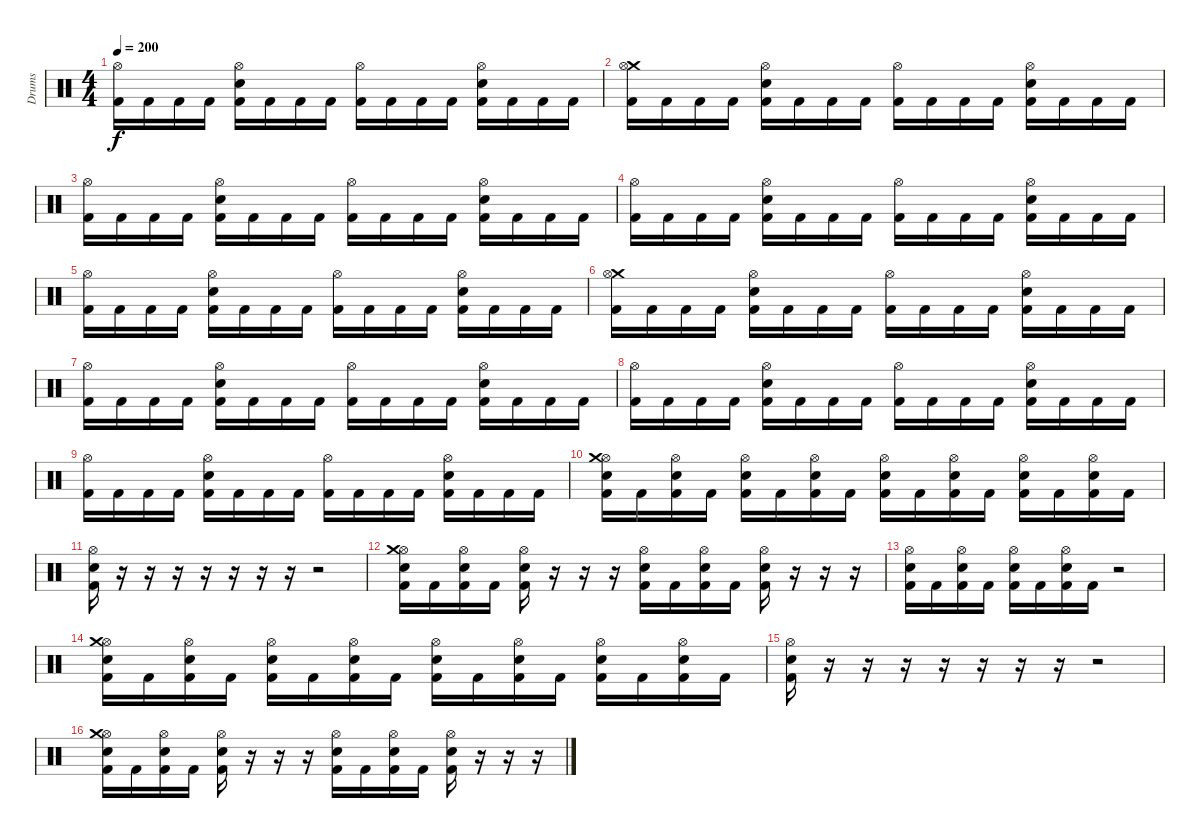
\track ("Drums" "Drums") {instrument percussion}
\staff {score}
\articulation defaults
\ts (4 4)
\tempo 200
\clef neutral
\ks c
("Hi-Hat (open)" "Kick (hit) 2").16{dy f} "Kick (hit) 2".16 "Kick (hit) 2".16 "Kick (hit) 2".16 ("Hi-Hat (open)" "Electric Snare (hit)" "Kick (hit) 2").16 "Kick (hit) 2".16 "Kick (hit) 2".16 "Kick (hit) 2".16 ("Hi-Hat (open)" "Kick (hit) 2").16 "Kick (hit) 2".16 "Kick (hit) 2".16 "Kick (hit) 2".16 ("Hi-Hat (open)" "Electric Snare (hit)" "Kick (hit) 2").16 "Kick (hit) 2".16 "Kick (hit) 2".16 "Kick (hit) 2".16 |
("Crash medium (hit)" "Hi-Hat (open)" "Kick (hit) 2").16 "Kick (hit) 2".16 "Kick (hit) 2".16 "Kick (hit) 2".16 ("Hi-Hat (open)" "Electric Snare (hit)" "Kick (hit) 2").16 "Kick (hit) 2".16 "Kick (hit) 2".16 "Kick (hit) 2".16 ("Hi-Hat (open)" "Kick (hit) 2").16 "Kick (hit) 2".16 "Kick (hit) 2".16 "Kick (hit) 2".16 ("Hi-Hat (open)" "Electric Snare (hit)" "Kick (hit) 2").16 "Kick (hit) 2".16 "Kick (hit) 2".16 "Kick (hit) 2".16 |
("Hi-Hat (open)" "Kick (hit) 2").16 "Kick (hit) 2".16 "Kick (hit) 2".16 "Kick (hit) 2".16 ("Hi-Hat (open)" "Electric Snare (hit)" "Kick (hit) 2").16 "Kick (hit) 2".16 "Kick (hit) 2".16 "Kick (hit) 2".16 ("Hi-Hat (open)" "Kick (hit) 2").16 "Kick (hit) 2".16 "Kick (hit) 2".16 "Kick (hit) 2".16 ("Hi-Hat (open)" "Electric Snare (hit)" "Kick (hit) 2").16 "Kick (hit) 2".16 "Kick (hit) 2".16 "Kick (hit) 2".16 |
("Hi-Hat (open)" "Kick (hit) 2").16 "Kick (hit) 2".16 "Kick (hit) 2".16 "Kick (hit) 2".16 ("Hi-Hat (open)" "Electric Snare (hit)" "Kick (hit) 2").16 "Kick (hit) 2".16 "Kick (hit) 2".16 "Kick (hit) 2".16 ("Hi-Hat (open)" "Kick (hit) 2").16 "Kick (hit) 2".16 "Kick (hit) 2".16 "Kick (hit) 2".16 ("Hi-Hat (open)" "Electric Snare (hit)" "Kick (hit) 2").16 "Kick (hit) 2".16 "Kick (hit) 2".16 "Kick (hit) 2".16 |
("Hi-Hat (open)" "Kick (hit) 2").16 "Kick (hit) 2".16 "Kick (hit) 2".16 "Kick (hit) 2".16 ("Hi-Hat (open)" "Electric Snare (hit)" "Kick (hit) 2").16 "Kick (hit) 2".16 "Kick (hit) 2".16 "Kick (hit) 2".16 ("Hi-Hat (open)" "Kick (hit) 2").16 "Kick (hit) 2".16 "Kick (hit) 2".16 "Kick (hit) 2".16 ("Hi-Hat (open)" "Electric Snare (hit)" "Kick (hit) 2").16 "Kick (hit) 2".16 "Kick (hit) 2".16 "Kick (hit) 2".16 |
("Crash medium (hit)" "Hi-Hat (open)" "Kick (hit) 2").16 "Kick (hit) 2".16 "Kick (hit) 2".16 "Kick (hit) 2".16 ("Hi-Hat (open)" "Electric Snare (hit)" "Kick (hit) 2").16 "Kick (hit) 2".16 "Kick (hit) 2".16 "Kick (hit) 2".16 ("Hi-Hat (open)" "Kick (hit) 2").16 "Kick (hit) 2".16 "Kick (hit) 2".16 "Kick (hit) 2".16 ("Hi-Hat (open)" "Electric Snare (hit)" "Kick (hit) 2").16 "Kick (hit) 2".16 "Kick (hit) 2".16 "Kick (hit) 2".16 |
("Hi-Hat (open)" "Kick (hit) 2").16 "Kick (hit) 2".16 "Kick (hit) 2".16 "Kick (hit) 2".16 ("Hi-Hat (open)" "Electric Snare (hit)" "Kick (hit) 2").16 "Kick (hit) 2".16 "Kick (hit) 2".16 "Kick (hit) 2".16 ("Hi-Hat (open)" "Kick (hit) 2").16 "Kick (hit) 2".16 "Kick (hit) 2".16 "Kick (hit) 2".16 ("Hi-Hat (open)" "Electric Snare (hit)" "Kick (hit) 2").16 "Kick (hit) 2".16 "Kick (hit) 2".16 "Kick (hit) 2".16 |
("Hi-Hat (open)" "Kick (hit) 2").16 "Kick (hit) 2".16 "Kick (hit) 2".16 "Kick (hit) 2".16 ("Hi-Hat (open)" "Electric Snare (hit)" "Kick (hit) 2").16 "Kick (hit) 2".16 "Kick (hit) 2".16 "Kick (hit) 2".16 ("Hi-Hat (open)" "Kick (hit) 2").16 "Kick (hit) 2".16 "Kick (hit) 2".16 "Kick (hit) 2".16 ("Hi-Hat (open)" "Electric Snare (hit)" "Kick (hit) 2").16 "Kick (hit) 2".16 "Kick (hit) 2".16 "Kick (hit) 2".16 |
("Hi-Hat (open)" "Kick (hit) 2").16 "Kick (hit) 2".16 "Kick (hit) 2".16 "Kick (hit) 2".16 ("Hi-Hat (open)" "Electric Snare (hit)" "Kick (hit) 2").16 "Kick (hit) 2".16 "Kick (hit) 2".16 "Kick (hit) 2".16 ("Hi-Hat (open)" "Kick (hit) 2").16 "Kick (hit) 2".16 "Kick (hit) 2".16 "Kick (hit) 2".16 ("Hi-Hat (open)" "Electric Snare (hit)" "Kick (hit) 2").16 "Kick (hit) 2".16 "Kick (hit) 2".16 "Kick (hit) 2".16 |
("Hi-Hat (open)" "Crash medium (hit)" "Electric Snare (hit)" "Kick (hit) 2").16 "Kick (hit) 2".16 ("Hi-Hat (open)" "Electric Snare (hit)" "Kick (hit) 2").16 "Kick (hit) 2".16 ("Hi-Hat (open)" "Electric Snare (hit)" "Kick (hit) 2").16 "Kick (hit) 2".16 ("Hi-Hat (open)" "Electric Snare (hit)" "Kick (hit) 2").16 "Kick (hit) 2".16 ("Hi-Hat (open)" "Electric Snare (hit)" "Kick (hit) 2").16 "Kick (hit) 2".16 ("Hi-Hat (open)" "Electric Snare (hit)" "Kick (hit) 2").16 "Kick (hit) 2".16 ("Hi-Hat (open)" "Electric Snare (hit)" "Kick (hit) 2").16 "Kick (hit) 2".16 ("Hi-Hat (open)" "Electric Snare (hit)" "Kick (hit) 2").16 "Kick (hit) 2".16 |
("Hi-Hat (open)" "Electric Snare (hit)" "Kick (hit) 2").16 r.16 r.16 r.16 r.16 r.16 r.16 r.16 r.2 |
("Hi-Hat (open)" "Crash medium (hit)" "Electric Snare (hit)" "Kick (hit) 2").16 "Kick (hit) 2".16 ("Hi-Hat (open)" "Electric Snare (hit)" "Kick (hit) 2").16 "Kick (hit) 2".16 ("Hi-Hat (open)" "Electric Snare (hit)" "Kick (hit) 2").16 r.16 r.16 r.16 ("Hi-Hat (open)" "Electric Snare (hit)" "Kick (hit) 2").16 "Kick (hit) 2".16 ("Hi-Hat (open)" "Electric Snare (hit)" "Kick (hit) 2").16 "Kick (hit) 2".16 ("Hi-Hat (open)" "Electric Snare (hit)" "Kick (hit) 2").16 r.16 r.16 r.16 |
("Hi-Hat (open)" "Electric Snare (hit)" "Kick (hit) 2").16 "Kick (hit) 2".16 ("Hi-Hat (open)" "Electric Snare (hit)" "Kick (hit) 2").16 "Kick (hit) 2".16 ("Hi-Hat (open)" "Electric Snare (hit)" "Kick (hit) 2").16 "Kick (hit) 2".16 ("Hi-Hat (open)" "Electric Snare (hit)" "Kick (hit) 2").16 "Kick (hit) 2".16 r.2 |
("Hi-Hat (open)" "Crash medium (hit)" "Electric Snare (hit)" "Kick (hit) 2").16 "Kick (hit) 2".16 ("Hi-Hat (open)" "Electric Snare (hit)" "Kick (hit) 2").16 "Kick (hit) 2".16 ("Hi-Hat (open)" "Electric Snare (hit)" "Kick (hit) 2").16 "Kick (hit) 2".16 ("Hi-Hat (open)" "Electric Snare (hit)" "Kick (hit) 2").16 "Kick (hit) 2".16 ("Hi-Hat (open)" "Electric Snare (hit)" "Kick (hit) 2").16 "Kick (hit) 2".16 ("Hi-Hat (open)" "Electric Snare (hit)" "Kick (hit) 2").16 "Kick (hit) 2".16 ("Hi-Hat (open)" "Electric Snare (hit)" "Kick (hit) 2").16 "Kick (hit) 2".16 ("Hi-Hat (open)" "Electric Snare (hit)" "Kick (hit) 2").16 "Kick (hit) 2".16 |
("Hi-Hat (open)" "Electric Snare (hit)" "Kick (hit) 2").16 r.16 r.16 r.16 r.16 r.16 r.16 r.16 r.2 |
("Hi-Hat (open)" "Crash medium (hit)" "Electric Snare (hit)" "Kick (hit) 2").16 "Kick (hit) 2".16 ("Hi-Hat (open)" "Electric Snare (hit)" "Kick (hit) 2").16 "Kick (hit) 2".16 ("Hi-Hat (open)" "Electric Snare (hit)" "Kick (hit) 2").16 r.16 r.16 r.16 ("Hi-Hat (open)" "Electric Snare (hit)" "Kick (hit) 2").16 "Kick (hit) 2".16 ("Hi-Hat (open)" "Electric Snare (hit)" "Kick (hit) 2").16 "Kick (hit) 2".16 ("Hi-Hat (open)" "Electric Snare (hit)" "Kick (hit) 2").16 r.16 r.16 r.16
